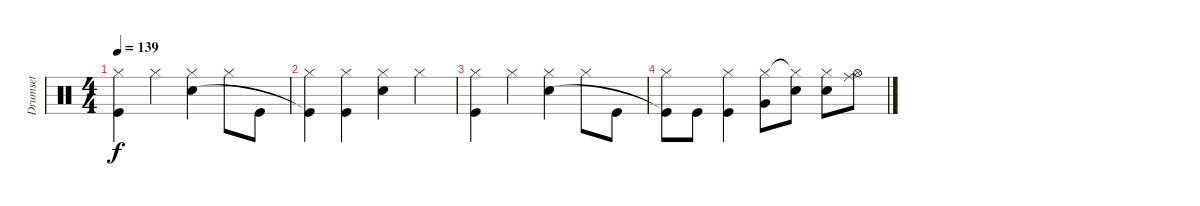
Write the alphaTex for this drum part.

\track ("Drumset" "Drumset") {instrument percussion}
\staff {score}
\articulation defaults
\ts (4 4)
\tempo 139
\clef neutral
\ks c
("Hi-Hat (closed)" "Kick (hit)").4{dy f} "Hi-Hat (closed)".4 ("Hi-Hat (closed)" "Snare (hit) 2").4 "Hi-Hat (closed)".8 "Kick (hit)".8 |
("Hi-Hat (closed)" "Kick (hit)"{t}).4 ("Hi-Hat (closed)" "Kick (hit)").4 ("Hi-Hat (closed)" "Snare (hit) 2").4 "Hi-Hat (closed)".4 |
("Hi-Hat (closed)" "Kick (hit)").4 "Hi-Hat (closed)".4 ("Hi-Hat (closed)" "Snare (hit) 2").4 "Hi-Hat (closed)".8 "Kick (hit)".8 |
("Hi-Hat (closed)" "Kick (hit)"{t}).8 "Kick (hit)".8 ("Hi-Hat (closed)" "Kick (hit)").4 ("Hi-Hat (closed)" "Very Low Tom (hit)").8 ("Hi-Hat (closed)"{t} "Snare (hit) 2").8 ("Hi-Hat (closed)" "Snare (hit) 2").8 ("Hi-Hat (open)" "Ride (middle)").8
